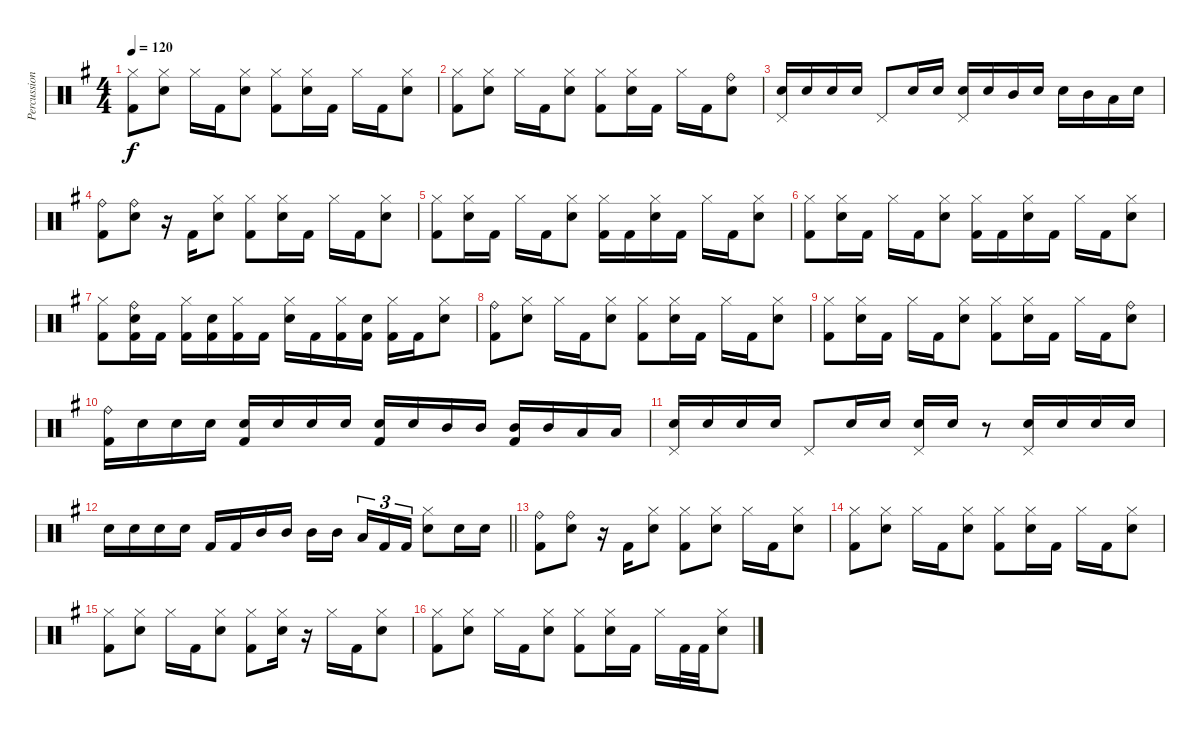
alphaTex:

\track ("Percussion" "Percussion") {instrument percussion}
\staff {score}
\articulation defaults
\ts (4 4)
\tempo 120
\clef neutral
\ks eminor
("Hi-Hat (closed)" "Kick (hit) 2").8{dy f} ("Hi-Hat (closed)" "Snare (hit) 2").8 "Hi-Hat (closed)".16 "Kick (hit) 2".16 ("Hi-Hat (closed)" "Snare (hit) 2").8 ("Hi-Hat (closed)" "Kick (hit) 2").8 ("Hi-Hat (closed)" "Snare (hit) 2").16 "Kick (hit) 2".16 "Hi-Hat (closed)".16 "Kick (hit) 2".16 ("Hi-Hat (closed)" "Snare (hit) 2").8 |
("Hi-Hat (closed)" "Kick (hit) 2").8 ("Hi-Hat (closed)" "Snare (hit) 2").8 "Hi-Hat (closed)".16 "Kick (hit) 2".16 ("Hi-Hat (closed)" "Snare (hit) 2").8 ("Hi-Hat (closed)" "Kick (hit) 2").8 ("Hi-Hat (closed)" "Snare (hit) 2").16 "Kick (hit) 2".16 "Hi-Hat (closed)".16 "Kick (hit) 2".16 ("Ride (bell)" "Snare (hit) 2").8 |
("Pedal Hi-Hat (hit)" "Snare (hit) 2").16 "Snare (hit) 2".16 "Snare (hit) 2".16 "Snare (hit) 2".16 "Pedal Hi-Hat (hit)".8 "Snare (hit) 2".16 "Snare (hit) 2".16 ("Pedal Hi-Hat (hit)" "Snare (hit) 2").16 "Snare (hit) 2".16 "Mid Tom (hit)".16 "Snare (hit) 2".16 "Snare (hit) 2".16 "Mid Tom (hit)".16 "Low Tom (hit)".16 "Snare (hit) 2".16 |
("Ride (bell)" "Kick (hit) 2").8 ("Ride (bell)" "Snare (hit) 2").8 r.16 "Kick (hit) 2".16 ("Hi-Hat (closed)" "Snare (hit) 2").8 ("Hi-Hat (closed)" "Kick (hit) 2").8 ("Hi-Hat (closed)" "Snare (hit) 2").16 "Kick (hit) 2".16 "Hi-Hat (closed)".16 "Kick (hit) 2".16 ("Hi-Hat (closed)" "Snare (hit) 2").8 |
("Hi-Hat (closed)" "Kick (hit) 2").8 ("Hi-Hat (closed)" "Snare (hit) 2").16 "Kick (hit) 2".16 "Hi-Hat (closed)".16 "Kick (hit) 2".16 ("Hi-Hat (closed)" "Snare (hit) 2").8 ("Hi-Hat (closed)" "Kick (hit) 2").16 "Kick (hit) 2".16 ("Hi-Hat (closed)" "Snare (hit) 2").16 "Kick (hit) 2".16 "Hi-Hat (closed)".16 "Kick (hit) 2".16 ("Hi-Hat (closed)" "Snare (hit) 2").8 |
("Hi-Hat (closed)" "Kick (hit) 2").8 ("Hi-Hat (closed)" "Snare (hit) 2").16 "Kick (hit) 2".16 "Hi-Hat (closed)".16 "Kick (hit) 2".16 ("Hi-Hat (closed)" "Snare (hit) 2").8 ("Hi-Hat (closed)" "Kick (hit) 2").16 "Kick (hit) 2".16 ("Hi-Hat (closed)" "Snare (hit) 2").16 "Kick (hit) 2".16 "Hi-Hat (closed)".16 "Kick (hit) 2".16 ("Hi-Hat (closed)" "Snare (hit) 2").8 |
("Hi-Hat (closed)" "Kick (hit) 2").8 ("Ride (bell)" "Snare (hit) 2" "Kick (hit) 2").16 "Kick (hit) 2".16 ("Hi-Hat (closed)" "Kick (hit) 2").16 ("Snare (hit) 2" "Kick (hit) 2").16 ("Hi-Hat (closed)" "Kick (hit) 2").16 "Kick (hit) 2".16 ("Hi-Hat (closed)" "Snare (hit) 2").16 "Kick (hit) 2".16 ("Hi-Hat (closed)" "Kick (hit) 2").16 ("Snare (hit) 2" "Kick (hit) 2").16 ("Hi-Hat (closed)" "Kick (hit) 2").16 "Kick (hit) 2".16 ("Hi-Hat (closed)" "Snare (hit) 2").8 |
("Ride (bell)" "Kick (hit) 2").8 ("Hi-Hat (closed)" "Snare (hit) 2").8 "Hi-Hat (closed)".16 "Kick (hit) 2".16 ("Hi-Hat (closed)" "Snare (hit) 2").8 ("Hi-Hat (closed)" "Kick (hit) 2").8 ("Hi-Hat (closed)" "Snare (hit) 2").16 "Kick (hit) 2".16 "Hi-Hat (closed)".16 "Kick (hit) 2".16 ("Hi-Hat (closed)" "Snare (hit) 2").8 |
("Hi-Hat (closed)" "Kick (hit) 2").8 ("Hi-Hat (closed)" "Snare (hit) 2").16 "Kick (hit) 2".16 "Hi-Hat (closed)".16 "Kick (hit) 2".16 ("Hi-Hat (closed)" "Snare (hit) 2").8 ("Hi-Hat (closed)" "Kick (hit) 2").8 ("Hi-Hat (closed)" "Snare (hit) 2").16 "Kick (hit) 2".16 "Hi-Hat (closed)".16 "Kick (hit) 2".16 ("Ride (bell)" "Snare (hit) 2").8 |
("Ride (bell)" "Kick (hit) 2").16 "Snare (hit) 2".16 "Snare (hit) 2".16 "Snare (hit) 2".16 ("Snare (hit) 2" "Kick (hit) 2").16 "Snare (hit) 2".16 "Snare (hit) 2".16 "Snare (hit) 2".16 ("Snare (hit) 2" "Kick (hit) 2").16 "Snare (hit) 2".16 "Mid Tom (hit)".16 "Mid Tom (hit)".16 ("Mid Tom (hit)" "Kick (hit) 2").16 "Mid Tom (hit)".16 "Low Tom (hit)".16 "Low Tom (hit)".16 |
("Pedal Hi-Hat (hit)" "Snare (hit) 2").16 "Snare (hit) 2".16 "Snare (hit) 2".16 "Snare (hit) 2".16 "Pedal Hi-Hat (hit)".8 "Snare (hit) 2".16 "Snare (hit) 2".16 ("Pedal Hi-Hat (hit)" "Snare (hit) 2").16 "Snare (hit) 2".16 r.8 ("Pedal Hi-Hat (hit)" "Snare (hit) 2").16 "Snare (hit) 2".16 "Snare (hit) 2".16 "Snare (hit) 2".16 |
\barLineRight lightlight "Snare (hit) 2".16 "Snare (hit) 2".16 "Snare (hit) 2".16 "Snare (hit) 2".16 "Kick (hit) 2".16 "Kick (hit) 2".16 "Mid Tom (hit)".16 "Mid Tom (hit)".16 "Mid Tom (hit)".16 "Mid Tom (hit)".16 "Low Tom (hit)".16{tu (3 2)} "Kick (hit) 2".16{tu (3 2)} "Kick (hit) 2".16{tu (3 2)}
("Hi-Hat (closed)" "Snare (hit) 2").8 "Snare (hit) 2".16 "Snare (hit) 2".16 |
("Ride (bell)" "Kick (hit) 2").8 ("Ride (bell)" "Snare (hit) 2").8 r.16 "Kick (hit) 2".16 ("Hi-Hat (closed)" "Snare (hit) 2").8 ("Hi-Hat (closed)" "Kick (hit) 2").8 ("Hi-Hat (closed)" "Snare (hit) 2").8 "Hi-Hat (closed)".16 "Kick (hit) 2".16 ("Hi-Hat (closed)" "Snare (hit) 2").8 |
("Hi-Hat (closed)" "Kick (hit) 2").8 ("Hi-Hat (closed)" "Snare (hit) 2").8 "Hi-Hat (closed)".16 "Kick (hit) 2".16 ("Hi-Hat (closed)" "Snare (hit) 2").8 ("Hi-Hat (closed)" "Kick (hit) 2").8 ("Hi-Hat (closed)" "Snare (hit) 2").16 "Kick (hit) 2".16 "Hi-Hat (closed)".16 "Kick (hit) 2".16 ("Hi-Hat (closed)" "Snare (hit) 2").8 |
("Hi-Hat (closed)" "Kick (hit) 2").8 ("Hi-Hat (closed)" "Snare (hit) 2").8 "Hi-Hat (closed)".16 "Kick (hit) 2".16 ("Hi-Hat (closed)" "Snare (hit) 2").8 ("Hi-Hat (closed)" "Kick (hit) 2").8 ("Hi-Hat (closed)" "Snare (hit) 2").16 r.16 "Hi-Hat (closed)".16 "Kick (hit) 2".16 ("Hi-Hat (closed)" "Snare (hit) 2").8 |
("Hi-Hat (closed)" "Kick (hit) 2").8 ("Hi-Hat (closed)" "Snare (hit) 2").8 "Hi-Hat (closed)".16 "Kick (hit) 2".16 ("Hi-Hat (closed)" "Snare (hit) 2").8 ("Hi-Hat (closed)" "Kick (hit) 2").8 ("Hi-Hat (closed)" "Snare (hit) 2").16 "Kick (hit) 2".16 "Hi-Hat (closed)".16 "Kick (hit) 2".32 "Kick (hit) 2".32 ("Hi-Hat (closed)" "Snare (hit) 2").8
